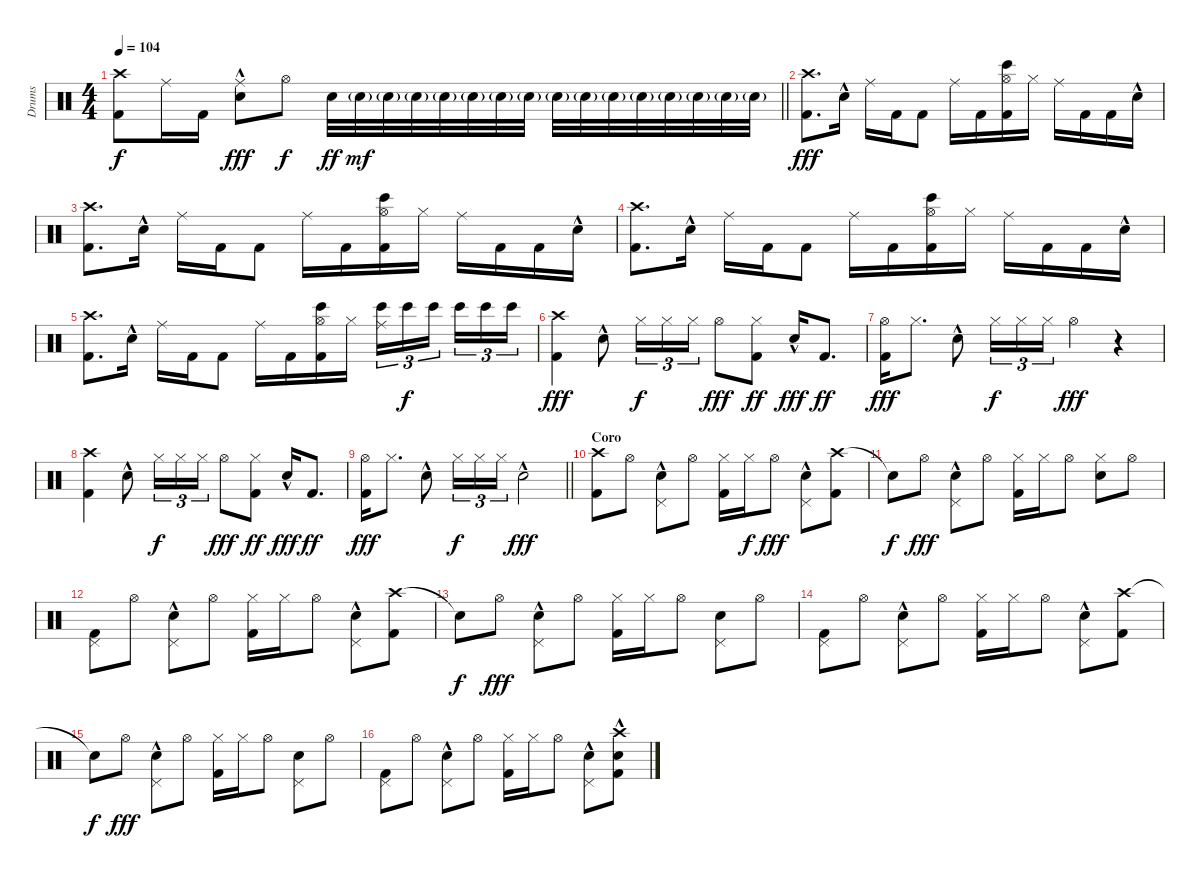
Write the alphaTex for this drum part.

\track ("Drums" "Drums") {instrument percussion}
\staff {score}
\articulation defaults
\ts (4 4)
\tempo 104
\clef neutral
\barLineRight lightlight
\ks c
("Crash high (hit)" "Kick (hit) 2").8{dy f} "Ride (middle)".16 "Kick (hit) 2".16 ("Ride (middle)" "Electric Snare (hit)"{hac}).8{dy fff} "Hi-Hat (open)".8{dy f} "Electric Snare (hit)".32{dy ff} "Electric Snare (hit)"{g}.32{dy mf} "Electric Snare (hit)"{g}.32 "Electric Snare (hit)"{g}.32 "Electric Snare (hit)"{g}.32 "Electric Snare (hit)"{g}.32 "Electric Snare (hit)"{g}.32 "Electric Snare (hit)"{g}.32 "Electric Snare (hit)"{g}.32 "Electric Snare (hit)"{g}.32 "Electric Snare (hit)"{g}.32 "Electric Snare (hit)"{g}.32 "Electric Snare (hit)"{g}.32 "Electric Snare (hit)"{g}.32 "Electric Snare (hit)"{g}.32 "Electric Snare (hit)"{g}.32 |
\section ("" "")
("Crash high (hit)" "Kick (hit) 2").8{d dy fff} "Electric Snare (hit)"{hac}.16 "Ride (middle)".16 "Kick (hit) 2".16 "Kick (hit) 2".8 "Ride (middle)".16 "Kick (hit) 2".16 ("Hi-Hat (open)" "Bongo High (hit)" "Kick (hit) 2").16 "Hi-Hat (closed)".16 "Ride (middle)".16 "Kick (hit) 2".16 "Kick (hit) 2".16 "Electric Snare (hit)"{hac}.16 |
("Crash high (hit)" "Kick (hit) 2").8{d} "Electric Snare (hit)"{hac}.16 "Ride (middle)".16 "Kick (hit) 2".16 "Kick (hit) 2".8 "Ride (middle)".16 "Kick (hit) 2".16 ("Hi-Hat (open)" "Bongo High (hit)" "Kick (hit) 2").16 "Hi-Hat (closed)".16 "Ride (middle)".16 "Kick (hit) 2".16 "Kick (hit) 2".16 "Electric Snare (hit)"{hac}.16 |
("Crash high (hit)" "Kick (hit) 2").8{d} "Electric Snare (hit)"{hac}.16 "Ride (middle)".16 "Kick (hit) 2".16 "Kick (hit) 2".8 "Ride (middle)".16 "Kick (hit) 2".16 ("Hi-Hat (open)" "Bongo High (hit)" "Kick (hit) 2").16 "Hi-Hat (closed)".16 "Ride (middle)".16 "Kick (hit) 2".16 "Kick (hit) 2".16 "Electric Snare (hit)"{hac}.16 |
("Crash high (hit)" "Kick (hit) 2").8{d} "Electric Snare (hit)"{hac}.16 "Ride (middle)".16 "Kick (hit) 2".16 "Kick (hit) 2".8 "Ride (middle)".16 "Kick (hit) 2".16 ("Hi-Hat (open)" "Bongo High (hit)" "Kick (hit) 2").16 "Hi-Hat (closed)".16 ("Ride (middle)" "Bongo High (hit)").16{tu (3 2)} "Bongo High (hit)".16{tu (3 2) dy f} "Bongo High (hit)".16{tu (3 2) beam splitsecondary} "Bongo High (hit)".16{tu (3 2)} "Bongo High (hit)".16{tu (3 2)} "Bongo High (hit)".16{tu (3 2)} |
("Crash high (hit)" "Kick (hit) 2").4{dy fff} "Electric Snare (hit)"{hac}.8 "Hi-Hat (closed)".16{tu (3 2) dy f} "Hi-Hat (closed)".16{tu (3 2)} "Hi-Hat (closed)".16{tu (3 2)} "Hi-Hat (open)".8{dy fff} ("Hi-Hat (closed)" "Kick (hit) 2").8{dy ff} "Electric Snare (hit)"{hac}.16{dy fff} "Kick (hit) 2".8{d dy ff} |
("Hi-Hat (open)" "Kick (hit) 2").16{dy fff} "Hi-Hat (closed)".8{d} "Electric Snare (hit)"{hac}.8 "Hi-Hat (closed)".16{tu (3 2) dy f} "Hi-Hat (closed)".16{tu (3 2)} "Hi-Hat (closed)".16{tu (3 2)} "Hi-Hat (open)".4{dy fff} r.4 |
("Crash high (hit)" "Kick (hit) 2").4 "Electric Snare (hit)"{hac}.8 "Hi-Hat (closed)".16{tu (3 2) dy f} "Hi-Hat (closed)".16{tu (3 2)} "Hi-Hat (closed)".16{tu (3 2)} "Hi-Hat (open)".8{dy fff} ("Hi-Hat (closed)" "Kick (hit) 2").8{dy ff} "Electric Snare (hit)"{hac}.16{dy fff} "Kick (hit) 2".8{d dy ff} |
\barLineRight lightlight
("Hi-Hat (open)" "Kick (hit) 2").16{dy fff} "Hi-Hat (closed)".8{d} "Electric Snare (hit)"{hac}.8 "Hi-Hat (closed)".16{tu (3 2) dy f} "Hi-Hat (closed)".16{tu (3 2)} "Hi-Hat (closed)".16{tu (3 2)} "Electric Snare (hit)"{hac}.2{dy fff} |
\section ("" "Coro")
("Crash high (hit)" "Kick (hit) 2").8 "Hi-Hat (open)".8 ("Pedal Hi-Hat (hit)" "Electric Snare (hit)"{hac}).8 "Hi-Hat (open)".8 ("Hi-Hat (closed)" "Kick (hit) 2").16 "Hi-Hat (closed)".16{dy f} "Hi-Hat (open)".8{dy fff} ("Pedal Hi-Hat (hit)" "Electric Snare (hit)"{hac}).8 ("Crash high (hit)" "Kick (hit) 2").8 |
"Snare (hit)"{t}.8{dy f} "Hi-Hat (open)".8{dy fff} ("Pedal Hi-Hat (hit)" "Electric Snare (hit)"{hac}).8 "Hi-Hat (open)".8 ("Hi-Hat (closed)" "Kick (hit) 2").16 "Hi-Hat (closed)".16 "Hi-Hat (open)".8 ("Hi-Hat (closed)" "Electric Snare (hit)").8 "Hi-Hat (open)".8 |
("Pedal Hi-Hat (hit)" "Kick (hit) 2").8 "Hi-Hat (open)".8 ("Pedal Hi-Hat (hit)" "Electric Snare (hit)"{hac}).8 "Hi-Hat (open)".8 ("Hi-Hat (closed)" "Kick (hit) 2").16 "Hi-Hat (closed)".16 "Hi-Hat (open)".8 ("Pedal Hi-Hat (hit)" "Electric Snare (hit)"{hac}).8 ("Crash high (hit)" "Kick (hit) 2").8 |
"Snare (hit)"{t}.8{dy f} "Hi-Hat (open)".8{dy fff} ("Pedal Hi-Hat (hit)" "Electric Snare (hit)"{hac}).8 "Hi-Hat (open)".8 ("Hi-Hat (closed)" "Kick (hit) 2").16 "Hi-Hat (closed)".16 "Hi-Hat (open)".8 ("Pedal Hi-Hat (hit)" "Electric Snare (hit)").8 "Hi-Hat (open)".8 |
("Pedal Hi-Hat (hit)" "Kick (hit) 2").8 "Hi-Hat (open)".8 ("Pedal Hi-Hat (hit)" "Electric Snare (hit)"{hac}).8 "Hi-Hat (open)".8 ("Hi-Hat (closed)" "Kick (hit) 2").16 "Hi-Hat (closed)".16 "Hi-Hat (open)".8 ("Pedal Hi-Hat (hit)" "Electric Snare (hit)"{hac}).8 ("Crash high (hit)" "Kick (hit) 2").8 |
"Snare (hit)"{t}.8{dy f} "Hi-Hat (open)".8{dy fff} ("Pedal Hi-Hat (hit)" "Electric Snare (hit)"{hac}).8 "Hi-Hat (open)".8 ("Hi-Hat (closed)" "Kick (hit) 2").16 "Hi-Hat (closed)".16 "Hi-Hat (open)".8 ("Pedal Hi-Hat (hit)" "Electric Snare (hit)").8 "Hi-Hat (open)".8 |
("Pedal Hi-Hat (hit)" "Kick (hit) 2").8 "Hi-Hat (open)".8 ("Pedal Hi-Hat (hit)" "Electric Snare (hit)"{hac}).8 "Hi-Hat (open)".8 ("Hi-Hat (closed)" "Kick (hit) 2").16 "Hi-Hat (closed)".16 "Hi-Hat (open)".8 ("Pedal Hi-Hat (hit)" "Electric Snare (hit)"{hac}).8 ("Crash high (hit)" "Electric Snare (hit)"{hac} "Kick (hit) 2").8
